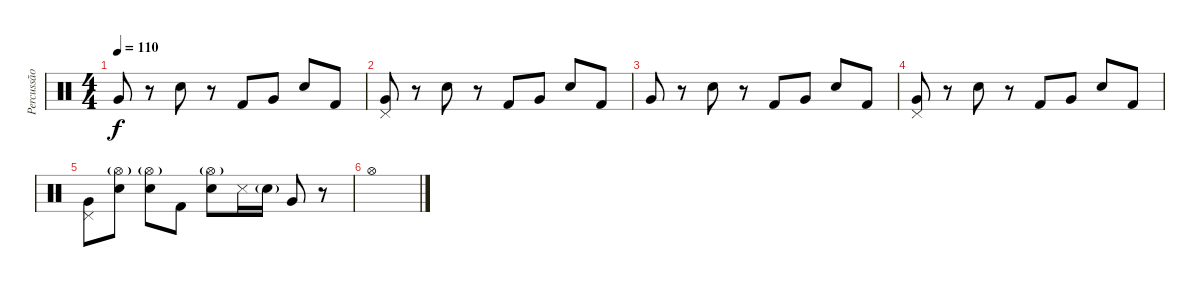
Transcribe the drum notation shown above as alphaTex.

\track ("Percussão" "Percussão") {instrument percussion}
\staff {score}
\articulation defaults
\ts (4 4)
\tempo 110
\clef neutral
\ks c "Very Low Tom (hit)".8{dy f}
r.8 "Electric Snare (hit)".8 r.8 "Kick (hit) 2".8 "Very Low Tom (hit)".8 "Electric Snare (hit)".8 "Kick (hit) 2".8 |
("Pedal Hi-Hat (hit)" "Very Low Tom (hit)").8 r.8 "Electric Snare (hit)".8 r.8 "Kick (hit) 2".8 "Very Low Tom (hit)".8 "Electric Snare (hit)".8 "Kick (hit) 2".8 |
"Very Low Tom (hit)".8 r.8 "Electric Snare (hit)".8 r.8 "Kick (hit) 2".8 "Very Low Tom (hit)".8 "Electric Snare (hit)".8 "Kick (hit) 2".8 |
("Pedal Hi-Hat (hit)" "Very Low Tom (hit)").8 r.8 "Electric Snare (hit)".8 r.8 "Kick (hit) 2".8 "Very Low Tom (hit)".8 "Electric Snare (hit)".8 "Kick (hit) 2".8 |
("Pedal Hi-Hat (hit)" "Very Low Tom (hit)").8 ("Hi-Hat (open)"{g} "Electric Snare (hit)").8 ("Hi-Hat (open)"{g} "Electric Snare (hit)").8 "Kick (hit) 2".8 ("Hi-Hat (open)"{g} "Electric Snare (hit)").8 "Snare (side stick) 3".16 "Electric Snare (hit)"{g}.16 "Very Low Tom (hit)".8 r.8 |
"Hi-Hat (open)".1
